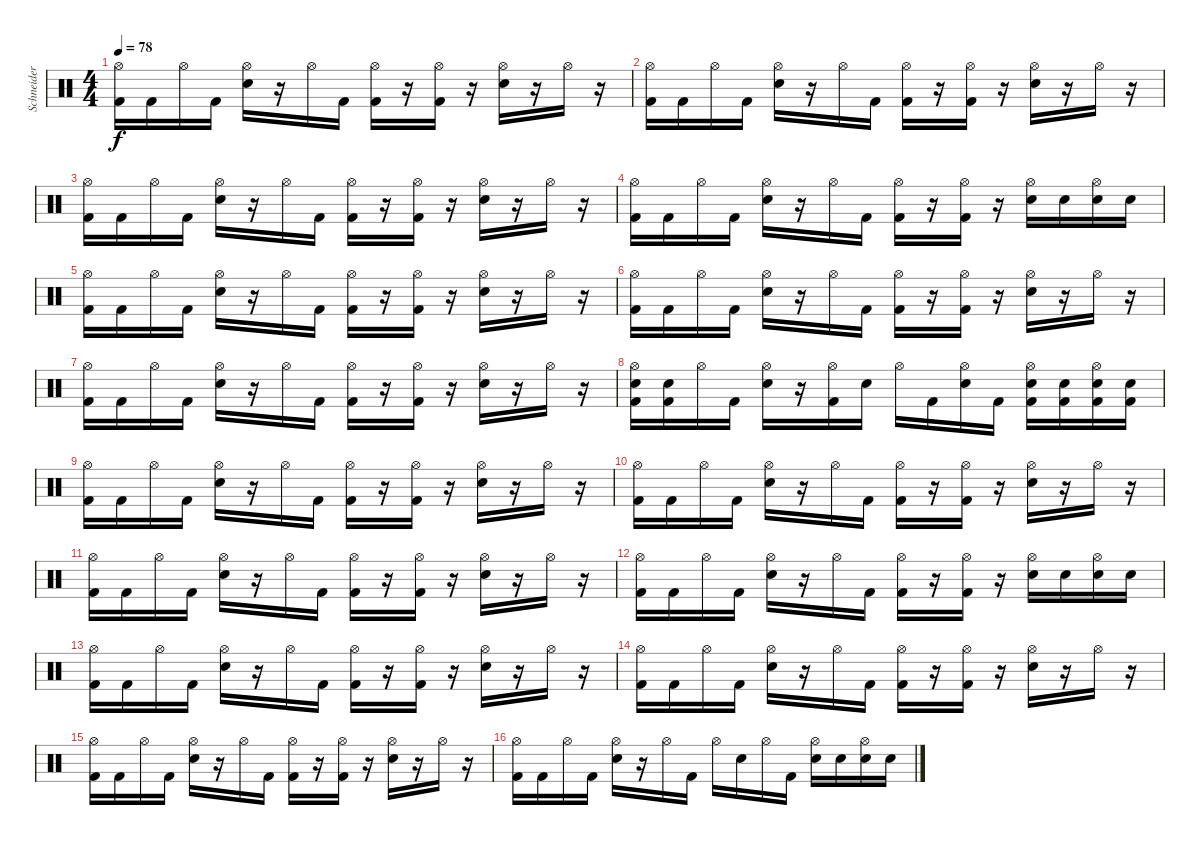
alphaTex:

\track ("Schneider - Drums" "Schneider ") {instrument percussion}
\staff {score}
\articulation defaults
\ts (4 4)
\tempo 78
\clef neutral
\ks c
("Hi-Hat (open)" "Kick (hit) 2").16{dy f} "Kick (hit) 2".16 "Hi-Hat (open)".16 "Kick (hit) 2".16 ("Hi-Hat (open)" "Snare (hit) 2").16 r.16 "Hi-Hat (open)".16 "Kick (hit) 2".16 ("Hi-Hat (open)" "Kick (hit) 2").16 r.16 ("Hi-Hat (open)" "Kick (hit) 2").16 r.16 ("Hi-Hat (open)" "Snare (hit) 2").16 r.16 "Hi-Hat (open)".16 r.16 |
("Hi-Hat (open)" "Kick (hit) 2").16 "Kick (hit) 2".16 "Hi-Hat (open)".16 "Kick (hit) 2".16 ("Hi-Hat (open)" "Snare (hit) 2").16 r.16 "Hi-Hat (open)".16 "Kick (hit) 2".16 ("Hi-Hat (open)" "Kick (hit) 2").16 r.16 ("Hi-Hat (open)" "Kick (hit) 2").16 r.16 ("Hi-Hat (open)" "Snare (hit) 2").16 r.16 "Hi-Hat (open)".16 r.16 |
("Hi-Hat (open)" "Kick (hit) 2").16 "Kick (hit) 2".16 "Hi-Hat (open)".16 "Kick (hit) 2".16 ("Hi-Hat (open)" "Snare (hit) 2").16 r.16 "Hi-Hat (open)".16 "Kick (hit) 2".16 ("Hi-Hat (open)" "Kick (hit) 2").16 r.16 ("Hi-Hat (open)" "Kick (hit) 2").16 r.16 ("Hi-Hat (open)" "Snare (hit) 2").16 r.16 "Hi-Hat (open)".16 r.16 |
("Hi-Hat (open)" "Kick (hit) 2").16 "Kick (hit) 2".16 "Hi-Hat (open)".16 "Kick (hit) 2".16 ("Hi-Hat (open)" "Snare (hit) 2").16 r.16 "Hi-Hat (open)".16 "Kick (hit) 2".16 ("Hi-Hat (open)" "Kick (hit) 2").16 r.16 ("Hi-Hat (open)" "Kick (hit) 2").16 r.16 ("Hi-Hat (open)" "Snare (hit) 2").16 "Snare (hit) 2".16 ("Hi-Hat (open)" "Snare (hit) 2").16 "Snare (hit) 2".16 |
("Hi-Hat (open)" "Kick (hit) 2").16 "Kick (hit) 2".16 "Hi-Hat (open)".16 "Kick (hit) 2".16 ("Hi-Hat (open)" "Snare (hit) 2").16 r.16 "Hi-Hat (open)".16 "Kick (hit) 2".16 ("Hi-Hat (open)" "Kick (hit) 2").16 r.16 ("Hi-Hat (open)" "Kick (hit) 2").16 r.16 ("Hi-Hat (open)" "Snare (hit) 2").16 r.16 "Hi-Hat (open)".16 r.16 |
("Hi-Hat (open)" "Kick (hit) 2").16 "Kick (hit) 2".16 "Hi-Hat (open)".16 "Kick (hit) 2".16 ("Hi-Hat (open)" "Snare (hit) 2").16 r.16 "Hi-Hat (open)".16 "Kick (hit) 2".16 ("Hi-Hat (open)" "Kick (hit) 2").16 r.16 ("Hi-Hat (open)" "Kick (hit) 2").16 r.16 ("Hi-Hat (open)" "Snare (hit) 2").16 r.16 "Hi-Hat (open)".16 r.16 |
("Hi-Hat (open)" "Kick (hit) 2").16 "Kick (hit) 2".16 "Hi-Hat (open)".16 "Kick (hit) 2".16 ("Hi-Hat (open)" "Snare (hit) 2").16 r.16 "Hi-Hat (open)".16 "Kick (hit) 2".16 ("Hi-Hat (open)" "Kick (hit) 2").16 r.16 ("Hi-Hat (open)" "Kick (hit) 2").16 r.16 ("Hi-Hat (open)" "Snare (hit) 2").16 r.16 "Hi-Hat (open)".16 r.16 |
("Hi-Hat (open)" "Snare (hit) 2" "Kick (hit) 2").16 ("Snare (hit) 2" "Kick (hit) 2").16 "Hi-Hat (open)".16 "Kick (hit) 2".16 ("Hi-Hat (open)" "Snare (hit) 2").16 r.16 ("Hi-Hat (open)" "Kick (hit) 2").16 "Snare (hit) 2".16 "Hi-Hat (open)".16 "Kick (hit) 2".16 ("Hi-Hat (open)" "Snare (hit) 2").16 "Kick (hit) 2".16 ("Hi-Hat (open)" "Snare (hit) 2" "Kick (hit) 2").16 ("Snare (hit) 2" "Kick (hit) 2").16 ("Hi-Hat (open)" "Snare (hit) 2" "Kick (hit) 2").16 ("Snare (hit) 2" "Kick (hit) 2").16 |
("Hi-Hat (open)" "Kick (hit) 2").16 "Kick (hit) 2".16 "Hi-Hat (open)".16 "Kick (hit) 2".16 ("Hi-Hat (open)" "Snare (hit) 2").16 r.16 "Hi-Hat (open)".16 "Kick (hit) 2".16 ("Hi-Hat (open)" "Kick (hit) 2").16 r.16 ("Hi-Hat (open)" "Kick (hit) 2").16 r.16 ("Hi-Hat (open)" "Snare (hit) 2").16 r.16 "Hi-Hat (open)".16 r.16 |
("Hi-Hat (open)" "Kick (hit) 2").16 "Kick (hit) 2".16 "Hi-Hat (open)".16 "Kick (hit) 2".16 ("Hi-Hat (open)" "Snare (hit) 2").16 r.16 "Hi-Hat (open)".16 "Kick (hit) 2".16 ("Hi-Hat (open)" "Kick (hit) 2").16 r.16 ("Hi-Hat (open)" "Kick (hit) 2").16 r.16 ("Hi-Hat (open)" "Snare (hit) 2").16 r.16 "Hi-Hat (open)".16 r.16 |
("Hi-Hat (open)" "Kick (hit) 2").16 "Kick (hit) 2".16 "Hi-Hat (open)".16 "Kick (hit) 2".16 ("Hi-Hat (open)" "Snare (hit) 2").16 r.16 "Hi-Hat (open)".16 "Kick (hit) 2".16 ("Hi-Hat (open)" "Kick (hit) 2").16 r.16 ("Hi-Hat (open)" "Kick (hit) 2").16 r.16 ("Hi-Hat (open)" "Snare (hit) 2").16 r.16 "Hi-Hat (open)".16 r.16 |
("Hi-Hat (open)" "Kick (hit) 2").16 "Kick (hit) 2".16 "Hi-Hat (open)".16 "Kick (hit) 2".16 ("Hi-Hat (open)" "Snare (hit) 2").16 r.16 "Hi-Hat (open)".16 "Kick (hit) 2".16 ("Hi-Hat (open)" "Kick (hit) 2").16 r.16 ("Hi-Hat (open)" "Kick (hit) 2").16 r.16 ("Hi-Hat (open)" "Snare (hit) 2").16 "Snare (hit) 2".16 ("Hi-Hat (open)" "Snare (hit) 2").16 "Snare (hit) 2".16 |
("Hi-Hat (open)" "Kick (hit) 2").16 "Kick (hit) 2".16 "Hi-Hat (open)".16 "Kick (hit) 2".16 ("Hi-Hat (open)" "Snare (hit) 2").16 r.16 "Hi-Hat (open)".16 "Kick (hit) 2".16 ("Hi-Hat (open)" "Kick (hit) 2").16 r.16 ("Hi-Hat (open)" "Kick (hit) 2").16 r.16 ("Hi-Hat (open)" "Snare (hit) 2").16 r.16 "Hi-Hat (open)".16 r.16 |
("Hi-Hat (open)" "Kick (hit) 2").16 "Kick (hit) 2".16 "Hi-Hat (open)".16 "Kick (hit) 2".16 ("Hi-Hat (open)" "Snare (hit) 2").16 r.16 "Hi-Hat (open)".16 "Kick (hit) 2".16 ("Hi-Hat (open)" "Kick (hit) 2").16 r.16 ("Hi-Hat (open)" "Kick (hit) 2").16 r.16 ("Hi-Hat (open)" "Snare (hit) 2").16 r.16 "Hi-Hat (open)".16 r.16 |
("Hi-Hat (open)" "Kick (hit) 2").16 "Kick (hit) 2".16 "Hi-Hat (open)".16 "Kick (hit) 2".16 ("Hi-Hat (open)" "Snare (hit) 2").16 r.16 "Hi-Hat (open)".16 "Kick (hit) 2".16 ("Hi-Hat (open)" "Kick (hit) 2").16 r.16 ("Hi-Hat (open)" "Kick (hit) 2").16 r.16 ("Hi-Hat (open)" "Snare (hit) 2").16 r.16 "Hi-Hat (open)".16 r.16 |
("Hi-Hat (open)" "Kick (hit) 2").16 "Kick (hit) 2".16 "Hi-Hat (open)".16 "Kick (hit) 2".16 ("Hi-Hat (open)" "Snare (hit) 2").16 r.16 "Hi-Hat (open)".16 "Kick (hit) 2".16 "Hi-Hat (open)".16 "Snare (hit) 2".16 "Hi-Hat (open)".16 "Kick (hit) 2".16 ("Hi-Hat (open)" "Snare (hit) 2").16 "Snare (hit) 2".16 ("Hi-Hat (open)" "Snare (hit) 2").16 "Snare (hit) 2".16
